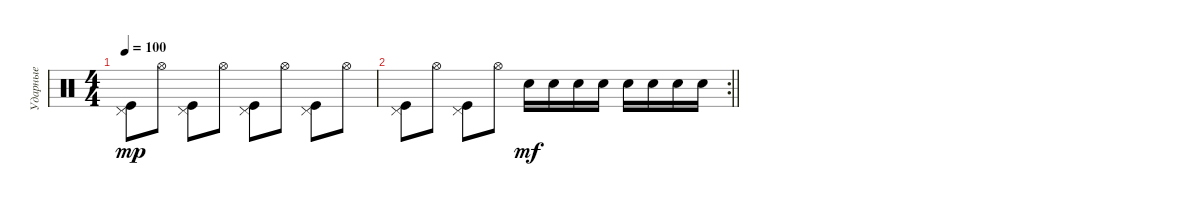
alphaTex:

\track ("Ударные" "Ударные") {instrument percussion}
\staff {score}
\articulation defaults
\ts (4 4)
\tempo 100
\clef neutral
\ks c
("Pedal Hi-Hat (hit)" "Kick (hit)").8{dy mp} "Hi-Hat (open)".8 ("Pedal Hi-Hat (hit)" "Kick (hit)").8 "Hi-Hat (open)".8 ("Pedal Hi-Hat (hit)" "Kick (hit)").8 "Hi-Hat (open)".8 ("Pedal Hi-Hat (hit)" "Kick (hit)").8 "Hi-Hat (open)".8 |
\rc 2
\barLineRight lightlight
("Pedal Hi-Hat (hit)" "Kick (hit)").8 "Hi-Hat (open)".8 ("Pedal Hi-Hat (hit)" "Kick (hit)").8 "Hi-Hat (open)".8 "Electric Snare (hit)".16{dy mf} "Electric Snare (hit)".16 "Electric Snare (hit)".16 "Electric Snare (hit)".16 "Electric Snare (hit)".16 "Electric Snare (hit)".16 "Electric Snare (hit)".16 "Electric Snare (hit)".16
